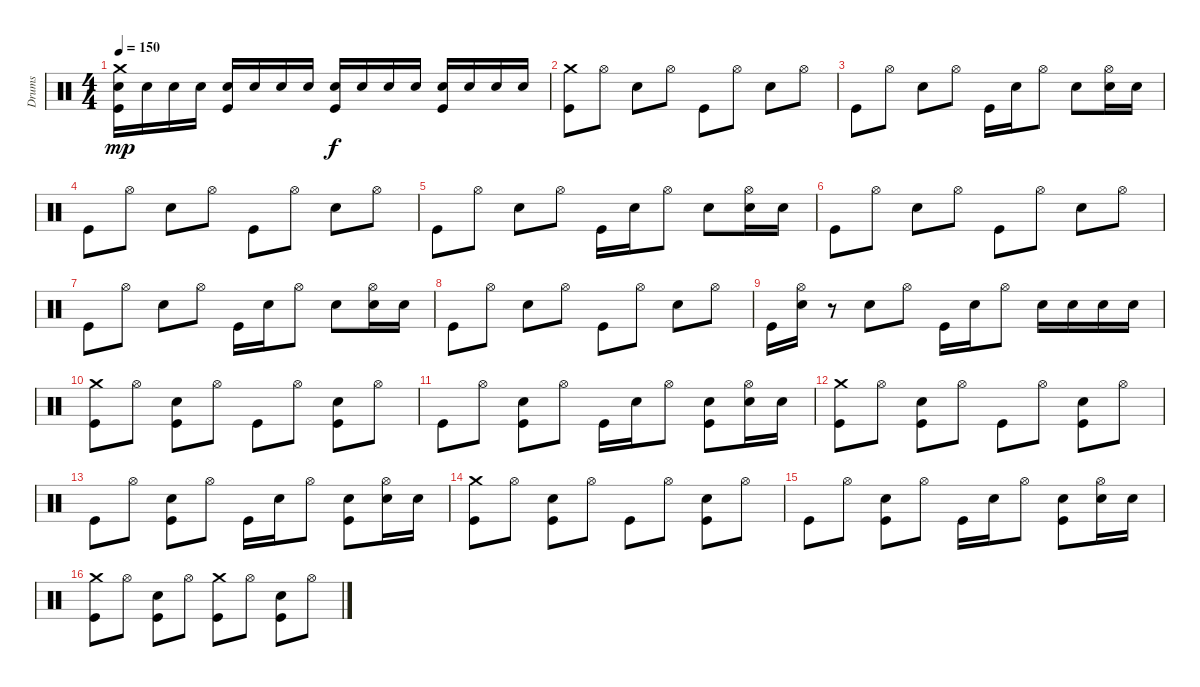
\track ("Drums" "Drums") {instrument percussion}
\staff {score}
\articulation defaults
\ts (4 4)
\tempo 150
\clef neutral
\ks c
("Crash medium (hit)" "Electric Snare (hit)" "Kick (hit)").16{dy mp} "Electric Snare (hit)".16 "Electric Snare (hit)".16 "Electric Snare (hit)".16 ("Electric Snare (hit)" "Kick (hit)").16 "Electric Snare (hit)".16 "Electric Snare (hit)".16 "Electric Snare (hit)".16 ("Electric Snare (hit)" "Kick (hit)").16{dy f} "Electric Snare (hit)".16 "Electric Snare (hit)".16 "Electric Snare (hit)".16 ("Electric Snare (hit)" "Kick (hit)").16 "Electric Snare (hit)".16 "Electric Snare (hit)".16 "Electric Snare (hit)".16 |
("Crash medium (hit)" "Kick (hit)").8 "Hi-Hat (open)".8 "Electric Snare (hit)".8 "Hi-Hat (open)".8 "Kick (hit)".8 "Hi-Hat (open)".8 "Electric Snare (hit)".8 "Hi-Hat (open)".8 |
"Kick (hit)".8 "Hi-Hat (open)".8 "Electric Snare (hit)".8 "Hi-Hat (open)".8 "Kick (hit)".16 "Electric Snare (hit)".16 "Hi-Hat (open)".8 "Electric Snare (hit)".8 ("Electric Snare (hit)" "Hi-Hat (open)").16 "Electric Snare (hit)".16 |
"Kick (hit)".8 "Hi-Hat (open)".8 "Electric Snare (hit)".8 "Hi-Hat (open)".8 "Kick (hit)".8 "Hi-Hat (open)".8 "Electric Snare (hit)".8 "Hi-Hat (open)".8 |
"Kick (hit)".8 "Hi-Hat (open)".8 "Electric Snare (hit)".8 "Hi-Hat (open)".8 "Kick (hit)".16 "Electric Snare (hit)".16 "Hi-Hat (open)".8 "Electric Snare (hit)".8 ("Electric Snare (hit)" "Hi-Hat (open)").16 "Electric Snare (hit)".16 |
"Kick (hit)".8 "Hi-Hat (open)".8 "Electric Snare (hit)".8 "Hi-Hat (open)".8 "Kick (hit)".8 "Hi-Hat (open)".8 "Electric Snare (hit)".8 "Hi-Hat (open)".8 |
"Kick (hit)".8 "Hi-Hat (open)".8 "Electric Snare (hit)".8 "Hi-Hat (open)".8 "Kick (hit)".16 "Electric Snare (hit)".16 "Hi-Hat (open)".8 "Electric Snare (hit)".8 ("Electric Snare (hit)" "Hi-Hat (open)").16 "Electric Snare (hit)".16 |
"Kick (hit)".8 "Hi-Hat (open)".8 "Electric Snare (hit)".8 "Hi-Hat (open)".8 "Kick (hit)".8 "Hi-Hat (open)".8 "Electric Snare (hit)".8 "Hi-Hat (open)".8 |
"Kick (hit)".16 ("Electric Snare (hit)" "Hi-Hat (open)").16 r.8 "Electric Snare (hit)".8 "Hi-Hat (open)".8 "Kick (hit)".16 "Electric Snare (hit)".16 "Hi-Hat (open)".8 "Electric Snare (hit)".16 "Electric Snare (hit)".16 "Electric Snare (hit)".16 "Electric Snare (hit)".16 |
("Crash medium (hit)" "Kick (hit)").8 "Hi-Hat (open)".8 ("Electric Snare (hit)" "Kick (hit)").8 "Hi-Hat (open)".8 "Kick (hit)".8 "Hi-Hat (open)".8 ("Electric Snare (hit)" "Kick (hit)").8 "Hi-Hat (open)".8 |
"Kick (hit)".8 "Hi-Hat (open)".8 ("Electric Snare (hit)" "Kick (hit)").8 "Hi-Hat (open)".8 "Kick (hit)".16 "Electric Snare (hit)".16 "Hi-Hat (open)".8 ("Electric Snare (hit)" "Kick (hit)").8 ("Electric Snare (hit)" "Hi-Hat (open)").16 "Electric Snare (hit)".16 |
("Crash medium (hit)" "Kick (hit)").8 "Hi-Hat (open)".8 ("Electric Snare (hit)" "Kick (hit)").8 "Hi-Hat (open)".8 "Kick (hit)".8 "Hi-Hat (open)".8 ("Electric Snare (hit)" "Kick (hit)").8 "Hi-Hat (open)".8 |
"Kick (hit)".8 "Hi-Hat (open)".8 ("Electric Snare (hit)" "Kick (hit)").8 "Hi-Hat (open)".8 "Kick (hit)".16 "Electric Snare (hit)".16 "Hi-Hat (open)".8 ("Electric Snare (hit)" "Kick (hit)").8 ("Electric Snare (hit)" "Hi-Hat (open)").16 "Electric Snare (hit)".16 |
("Crash medium (hit)" "Kick (hit)").8 "Hi-Hat (open)".8 ("Electric Snare (hit)" "Kick (hit)").8 "Hi-Hat (open)".8 "Kick (hit)".8 "Hi-Hat (open)".8 ("Electric Snare (hit)" "Kick (hit)").8 "Hi-Hat (open)".8 |
"Kick (hit)".8 "Hi-Hat (open)".8 ("Electric Snare (hit)" "Kick (hit)").8 "Hi-Hat (open)".8 "Kick (hit)".16 "Electric Snare (hit)".16 "Hi-Hat (open)".8 ("Electric Snare (hit)" "Kick (hit)").8 ("Electric Snare (hit)" "Hi-Hat (open)").16 "Electric Snare (hit)".16 |
("Crash medium (hit)" "Kick (hit)").8 "Hi-Hat (open)".8 ("Electric Snare (hit)" "Kick (hit)").8 "Hi-Hat (open)".8 ("Crash medium (hit)" "Kick (hit)").8 "Hi-Hat (open)".8 ("Electric Snare (hit)" "Kick (hit)").8 "Hi-Hat (open)".8
